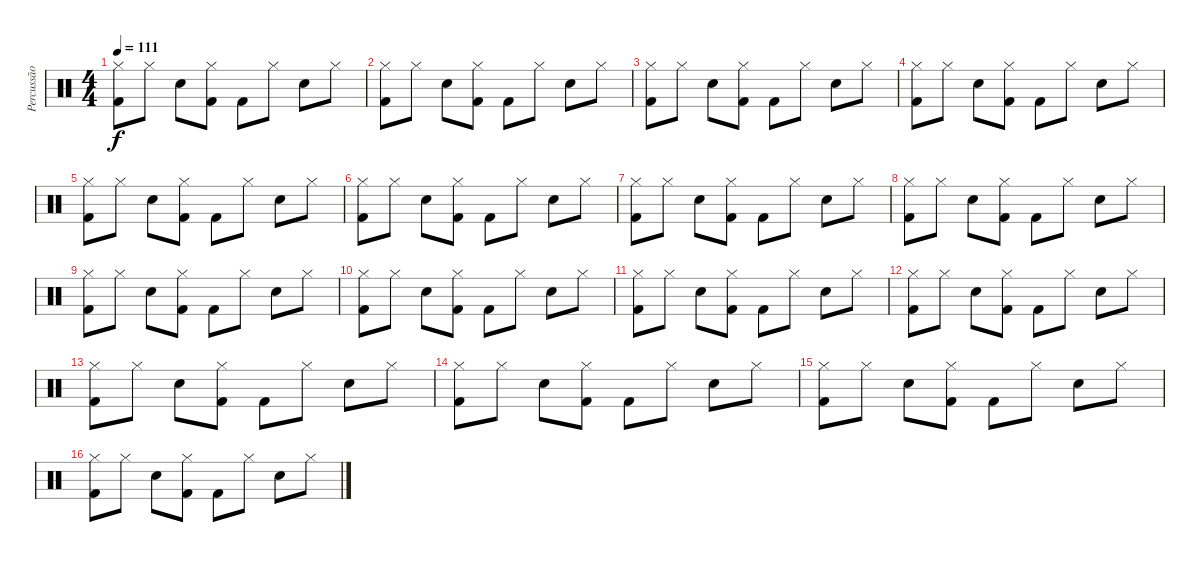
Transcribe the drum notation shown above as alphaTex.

\track ("Percussão" "Percussão") {instrument percussion}
\staff {score}
\articulation defaults
\ts (4 4)
\tempo 111
\clef neutral
\ks c
("Hi-Hat (closed)" "Kick (hit) 2").8{dy f} "Hi-Hat (closed)".8 "Electric Snare (hit)".8 ("Hi-Hat (closed)" "Kick (hit) 2").8 "Kick (hit) 2".8 "Hi-Hat (closed)".8 "Electric Snare (hit)".8 "Hi-Hat (closed)".8 |
("Hi-Hat (closed)" "Kick (hit) 2").8 "Hi-Hat (closed)".8 "Electric Snare (hit)".8 ("Hi-Hat (closed)" "Kick (hit) 2").8 "Kick (hit) 2".8 "Hi-Hat (closed)".8 "Electric Snare (hit)".8 "Hi-Hat (closed)".8 |
("Hi-Hat (closed)" "Kick (hit) 2").8 "Hi-Hat (closed)".8 "Electric Snare (hit)".8 ("Hi-Hat (closed)" "Kick (hit) 2").8 "Kick (hit) 2".8 "Hi-Hat (closed)".8 "Electric Snare (hit)".8 "Hi-Hat (closed)".8 |
("Hi-Hat (closed)" "Kick (hit) 2").8 "Hi-Hat (closed)".8 "Electric Snare (hit)".8 ("Hi-Hat (closed)" "Kick (hit) 2").8 "Kick (hit) 2".8 "Hi-Hat (closed)".8 "Electric Snare (hit)".8 "Hi-Hat (closed)".8 |
("Hi-Hat (closed)" "Kick (hit) 2").8 "Hi-Hat (closed)".8 "Electric Snare (hit)".8 ("Hi-Hat (closed)" "Kick (hit) 2").8 "Kick (hit) 2".8 "Hi-Hat (closed)".8 "Electric Snare (hit)".8 "Hi-Hat (closed)".8 |
("Hi-Hat (closed)" "Kick (hit) 2").8 "Hi-Hat (closed)".8 "Electric Snare (hit)".8 ("Hi-Hat (closed)" "Kick (hit) 2").8 "Kick (hit) 2".8 "Hi-Hat (closed)".8 "Electric Snare (hit)".8 "Hi-Hat (closed)".8 |
("Hi-Hat (closed)" "Kick (hit) 2").8 "Hi-Hat (closed)".8 "Electric Snare (hit)".8 ("Hi-Hat (closed)" "Kick (hit) 2").8 "Kick (hit) 2".8 "Hi-Hat (closed)".8 "Electric Snare (hit)".8 "Hi-Hat (closed)".8 |
("Hi-Hat (closed)" "Kick (hit) 2").8 "Hi-Hat (closed)".8 "Electric Snare (hit)".8 ("Hi-Hat (closed)" "Kick (hit) 2").8 "Kick (hit) 2".8 "Hi-Hat (closed)".8 "Electric Snare (hit)".8 "Hi-Hat (closed)".8 |
("Hi-Hat (closed)" "Kick (hit) 2").8 "Hi-Hat (closed)".8 "Electric Snare (hit)".8 ("Hi-Hat (closed)" "Kick (hit) 2").8 "Kick (hit) 2".8 "Hi-Hat (closed)".8 "Electric Snare (hit)".8 "Hi-Hat (closed)".8 |
("Hi-Hat (closed)" "Kick (hit) 2").8 "Hi-Hat (closed)".8 "Electric Snare (hit)".8 ("Hi-Hat (closed)" "Kick (hit) 2").8 "Kick (hit) 2".8 "Hi-Hat (closed)".8 "Electric Snare (hit)".8 "Hi-Hat (closed)".8 |
("Hi-Hat (closed)" "Kick (hit) 2").8 "Hi-Hat (closed)".8 "Electric Snare (hit)".8 ("Hi-Hat (closed)" "Kick (hit) 2").8 "Kick (hit) 2".8 "Hi-Hat (closed)".8 "Electric Snare (hit)".8 "Hi-Hat (closed)".8 |
("Hi-Hat (closed)" "Kick (hit) 2").8 "Hi-Hat (closed)".8 "Electric Snare (hit)".8 ("Hi-Hat (closed)" "Kick (hit) 2").8 "Kick (hit) 2".8 "Hi-Hat (closed)".8 "Electric Snare (hit)".8 "Hi-Hat (closed)".8 |
("Hi-Hat (closed)" "Kick (hit) 2").8 "Hi-Hat (closed)".8 "Electric Snare (hit)".8 ("Hi-Hat (closed)" "Kick (hit) 2").8 "Kick (hit) 2".8 "Hi-Hat (closed)".8 "Electric Snare (hit)".8 "Hi-Hat (closed)".8 |
("Hi-Hat (closed)" "Kick (hit) 2").8 "Hi-Hat (closed)".8 "Electric Snare (hit)".8 ("Hi-Hat (closed)" "Kick (hit) 2").8 "Kick (hit) 2".8 "Hi-Hat (closed)".8 "Electric Snare (hit)".8 "Hi-Hat (closed)".8 |
("Hi-Hat (closed)" "Kick (hit) 2").8 "Hi-Hat (closed)".8 "Electric Snare (hit)".8 ("Hi-Hat (closed)" "Kick (hit) 2").8 "Kick (hit) 2".8 "Hi-Hat (closed)".8 "Electric Snare (hit)".8 "Hi-Hat (closed)".8 |
("Hi-Hat (closed)" "Kick (hit) 2").8 "Hi-Hat (closed)".8 "Electric Snare (hit)".8 ("Hi-Hat (closed)" "Kick (hit) 2").8 "Kick (hit) 2".8 "Hi-Hat (closed)".8 "Electric Snare (hit)".8 "Hi-Hat (closed)".8
